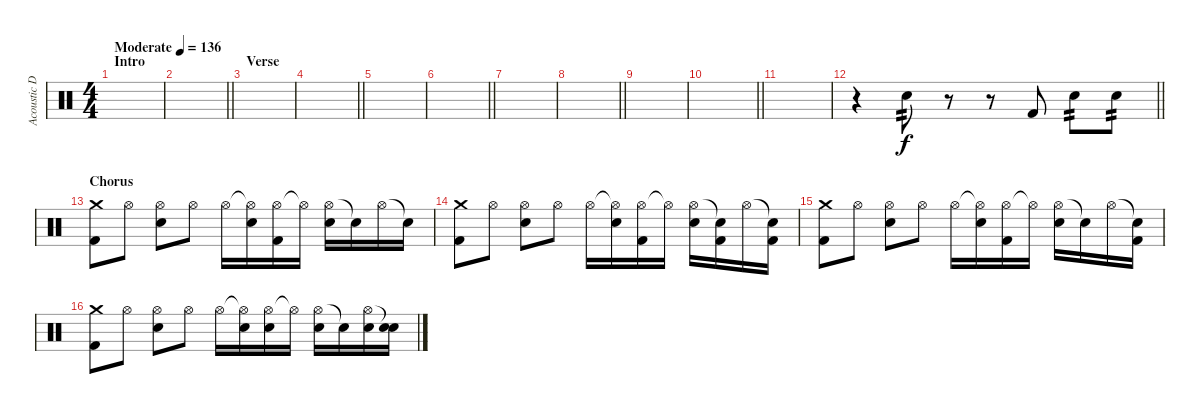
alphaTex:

\track ("Acoustic Drums" "Acoustic D") {instrument percussion}
\staff {score}
\articulation defaults
\ts (4 4)
\section ("" "Intro")
\tempo (136 "Moderate")
\clef neutral
\ks c
|
\barLineRight lightlight
|
\section ("" "Verse")
|
\barLineRight lightlight
|
|
\barLineRight lightlight
|
|
\barLineRight lightlight
|
|
\barLineRight lightlight
|
|
\barLineRight lightlight
r.4 "Snare (hit) 2".8{tp 2} r.8 r.8 "Kick (hit) 2".8 "Snare (hit) 2".8{tp 2} "Snare (hit) 2".8{tp 2} |
\section ("" "Chorus")
("Crash medium (hit)" "Kick (hit) 2").8 "Hi-Hat (open)".8 ("Hi-Hat (open)" "Snare (hit) 2").8 "Hi-Hat (open)".8 "Hi-Hat (open)".16 ("Hi-Hat (open)"{t} "Snare (hit) 2").16 ("Hi-Hat (open)" "Kick (hit) 2").16 "Hi-Hat (open)"{t}.16 ("Hi-Hat (open)" "Snare (hit) 2").16 "Snare (hit)"{t}.16 "Hi-Hat (open)".16 "Snare (hit)"{t}.16 |
("Crash medium (hit)" "Kick (hit) 2").8 "Hi-Hat (open)".8 ("Hi-Hat (open)" "Snare (hit) 2").8 "Hi-Hat (open)".8 "Hi-Hat (open)".16 ("Hi-Hat (open)"{t} "Snare (hit) 2").16 ("Hi-Hat (open)" "Kick (hit) 2").16 "Hi-Hat (open)"{t}.16 ("Hi-Hat (open)" "Snare (hit) 2").16 ("Snare (hit)"{t} "Kick (hit) 2").16 "Hi-Hat (open)".16 ("Snare (hit)"{t} "Kick (hit) 2").16 |
("Crash medium (hit)" "Kick (hit) 2").8 "Hi-Hat (open)".8 ("Hi-Hat (open)" "Snare (hit) 2").8 "Hi-Hat (open)".8 "Hi-Hat (open)".16 ("Hi-Hat (open)"{t} "Snare (hit) 2").16 ("Hi-Hat (open)" "Kick (hit) 2").16 "Hi-Hat (open)"{t}.16 ("Hi-Hat (open)" "Snare (hit) 2").16 "Snare (hit)"{t}.16 "Hi-Hat (open)".16 ("Snare (hit)"{t} "Kick (hit) 2").16 |
("Crash medium (hit)" "Kick (hit) 2").8 "Hi-Hat (open)".8 ("Hi-Hat (open)" "Snare (hit) 2").8 "Hi-Hat (open)".8 "Hi-Hat (open)".16 ("Hi-Hat (open)"{t} "Snare (hit) 2").16 ("Hi-Hat (open)" "Snare (hit) 2").16 "Hi-Hat (open)"{t}.16 ("Hi-Hat (open)" "Snare (hit) 2").16 "Snare (hit)"{t}.16 ("Hi-Hat (open)" "Snare (hit) 2").16 ("Snare (hit)"{t} "Snare (hit) 2").16
